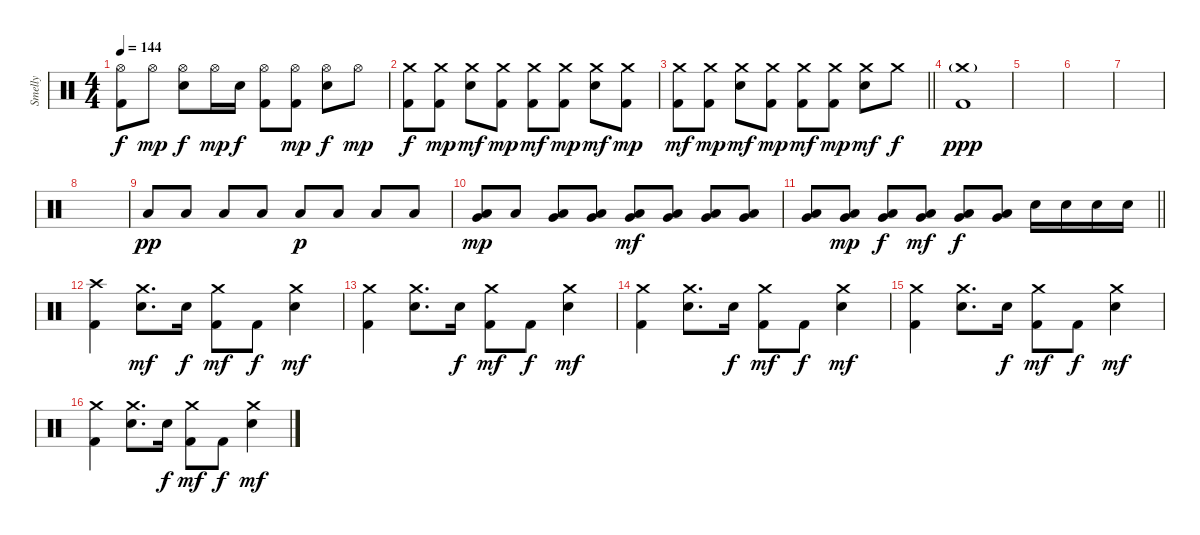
\track ("Smelly" "Smelly") {instrument percussion}
\staff {score}
\articulation defaults
\ts (4 4)
\tempo 144
\clef neutral
\ks c
("Hi-Hat (open)" "Kick (hit) 2").8{dy f} "Hi-Hat (open)".8{dy mp} ("Hi-Hat (open)" "Electric Snare (hit)").8{dy f} "Hi-Hat (open)".16{dy mp} "Electric Snare (hit)".16{dy f} ("Hi-Hat (open)" "Kick (hit) 2").8 ("Hi-Hat (open)" "Kick (hit) 2").8{dy mp} ("Hi-Hat (open)" "Electric Snare (hit)").8{dy f} "Hi-Hat (open)".8{dy mp} |
("Crash medium (hit)" "Kick (hit) 2").8{dy f} ("Crash medium (hit)" "Kick (hit) 2").8{dy mp} ("Crash medium (hit)" "Electric Snare (hit)").8{dy mf} ("Crash medium (hit)" "Kick (hit) 2").8{dy mp} ("Crash medium (hit)" "Kick (hit) 2").8{dy mf} ("Crash medium (hit)" "Kick (hit) 2").8{dy mp} ("Crash medium (hit)" "Electric Snare (hit)").8{dy mf} ("Crash medium (hit)" "Kick (hit) 2").8{dy mp} |
\barLineRight lightlight
("Crash medium (hit)" "Kick (hit) 2").8{dy mf} ("Crash medium (hit)" "Kick (hit) 2").8{dy mp} ("Crash medium (hit)" "Electric Snare (hit)").8{dy mf} ("Crash medium (hit)" "Kick (hit) 2").8{dy mp} ("Crash medium (hit)" "Kick (hit) 2").8{dy mf} ("Crash medium (hit)" "Kick (hit) 2").8{dy mp} ("Crash medium (hit)" "Electric Snare (hit)").8{dy mf} "Crash medium (hit)".8{dy f} |
\section ("" "")
("Crash medium (hit)"{g} "Kick (hit) 2").1{dy ppp} |
|
|
|
|
"Low Floor Tom (hit)".8{dy pp} "Low Floor Tom (hit)".8 "Low Floor Tom (hit)".8 "Low Floor Tom (hit)".8 "Low Floor Tom (hit)".8{dy p} "Low Floor Tom (hit)".8 "Low Floor Tom (hit)".8 "Low Floor Tom (hit)".8 |
("Very Low Tom (hit)" "Low Floor Tom (hit)").8{dy mp} "Low Floor Tom (hit)".8 ("Very Low Tom (hit)" "Low Floor Tom (hit)").8 ("Very Low Tom (hit)" "Low Floor Tom (hit)").8 ("Very Low Tom (hit)" "Low Floor Tom (hit)").8{dy mf} ("Very Low Tom (hit)" "Low Floor Tom (hit)").8 ("Very Low Tom (hit)" "Low Floor Tom (hit)").8 ("Very Low Tom (hit)" "Low Floor Tom (hit)").8 |
\barLineRight lightlight
("Very Low Tom (hit)" "Low Floor Tom (hit)").8 ("Very Low Tom (hit)" "Low Floor Tom (hit)").8{dy mp} ("Very Low Tom (hit)" "Low Floor Tom (hit)").8{dy f} ("Very Low Tom (hit)" "Low Floor Tom (hit)").8{dy mf} ("Very Low Tom (hit)" "Low Floor Tom (hit)").8{dy f} ("Very Low Tom (hit)" "Low Floor Tom (hit)").8 "Electric Snare (hit)".16 "Electric Snare (hit)".16 "Electric Snare (hit)".16 "Electric Snare (hit)".16 |
\section ("" "")
("Crash high (hit)" "Kick (hit) 2").4 ("Crash medium (hit)" "Electric Snare (hit)").8{d dy mf} "Electric Snare (hit)".16{dy f} ("Crash medium (hit)" "Kick (hit) 2").8{dy mf} "Kick (hit) 2".8{dy f} ("Crash medium (hit)" "Electric Snare (hit)").4{dy mf} |
("Crash medium (hit)" "Kick (hit) 2").4 ("Crash medium (hit)" "Electric Snare (hit)").8{d} "Electric Snare (hit)".16{dy f} ("Crash medium (hit)" "Kick (hit) 2").8{dy mf} "Kick (hit) 2".8{dy f} ("Crash medium (hit)" "Electric Snare (hit)").4{dy mf} |
("Crash medium (hit)" "Kick (hit) 2").4 ("Crash medium (hit)" "Electric Snare (hit)").8{d} "Electric Snare (hit)".16{dy f} ("Crash medium (hit)" "Kick (hit) 2").8{dy mf} "Kick (hit) 2".8{dy f} ("Crash medium (hit)" "Electric Snare (hit)").4{dy mf} |
("Crash medium (hit)" "Kick (hit) 2").4 ("Crash medium (hit)" "Electric Snare (hit)").8{d} "Electric Snare (hit)".16{dy f} ("Crash medium (hit)" "Kick (hit) 2").8{dy mf} "Kick (hit) 2".8{dy f} ("Crash medium (hit)" "Electric Snare (hit)").4{dy mf} |
("Crash medium (hit)" "Kick (hit) 2").4 ("Crash medium (hit)" "Electric Snare (hit)").8{d} "Electric Snare (hit)".16{dy f} ("Crash medium (hit)" "Kick (hit) 2").8{dy mf} "Kick (hit) 2".8{dy f} ("Crash medium (hit)" "Electric Snare (hit)").4{dy mf}
